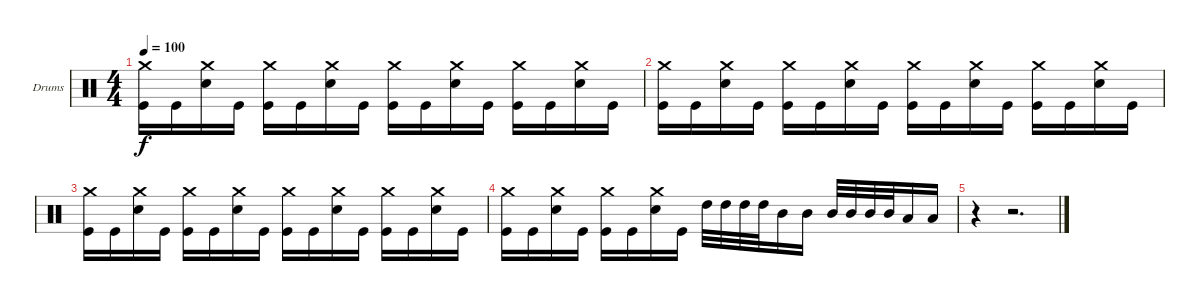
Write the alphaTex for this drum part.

\bracketExtendMode groupsimilarinstruments
\firstSystemTrackNameOrientation horizontal
\otherSystemsTrackNameOrientation horizontal
\track ("Drumkit" "Drums") {instrument percussion}
\staff {score}
\articulation defaults
\ts (4 4)
\tempo 100
\clef neutral
\ks c
("Crash medium (hit)" "Kick (hit)").16{dy f} "Kick (hit)".16 ("Crash medium (hit)" "Snare (hit) 2").16 "Kick (hit)".16 ("Crash medium (hit)" "Kick (hit)").16 "Kick (hit)".16 ("Crash medium (hit)" "Snare (hit) 2").16 "Kick (hit)".16 ("Crash medium (hit)" "Kick (hit)").16 "Kick (hit)".16 ("Crash medium (hit)" "Snare (hit) 2").16 "Kick (hit)".16 ("Crash medium (hit)" "Kick (hit)").16 "Kick (hit)".16 ("Crash medium (hit)" "Snare (hit) 2").16 "Kick (hit)".16 |
("Crash medium (hit)" "Kick (hit)").16 "Kick (hit)".16 ("Crash medium (hit)" "Snare (hit) 2").16 "Kick (hit)".16 ("Crash medium (hit)" "Kick (hit)").16 "Kick (hit)".16 ("Crash medium (hit)" "Snare (hit) 2").16 "Kick (hit)".16 ("Crash medium (hit)" "Kick (hit)").16 "Kick (hit)".16 ("Crash medium (hit)" "Snare (hit) 2").16 "Kick (hit)".16 ("Crash medium (hit)" "Kick (hit)").16 "Kick (hit)".16 ("Crash medium (hit)" "Snare (hit) 2").16 "Kick (hit)".16 |
("Crash medium (hit)" "Kick (hit)").16 "Kick (hit)".16 ("Crash medium (hit)" "Snare (hit) 2").16 "Kick (hit)".16 ("Crash medium (hit)" "Kick (hit)").16 "Kick (hit)".16 ("Crash medium (hit)" "Snare (hit) 2").16 "Kick (hit)".16 ("Crash medium (hit)" "Kick (hit)").16 "Kick (hit)".16 ("Crash medium (hit)" "Snare (hit) 2").16 "Kick (hit)".16 ("Crash medium (hit)" "Kick (hit)").16 "Kick (hit)".16 ("Crash medium (hit)" "Snare (hit) 2").16 "Kick (hit)".16 |
("Crash medium (hit)" "Kick (hit)").16 "Kick (hit)".16 ("Crash medium (hit)" "Snare (hit) 2").16 "Kick (hit)".16 ("Crash medium (hit)" "Kick (hit)").16 "Kick (hit)".16 ("Crash medium (hit)" "Snare (hit) 2").16 "Kick (hit)".16 "High Tom (hit)".32 "High Tom (hit)".32 "High Tom (hit)".32 "High Tom (hit)".32 "Mid Tom (hit)".16 "Mid Tom (hit)".16 "Mid Tom (hit)".32 "Mid Tom (hit)".32 "Mid Tom (hit)".32 "Mid Tom (hit)".32 "Low Tom (hit)".16 "Low Tom (hit)".16 |
r.4 r.2{d}
